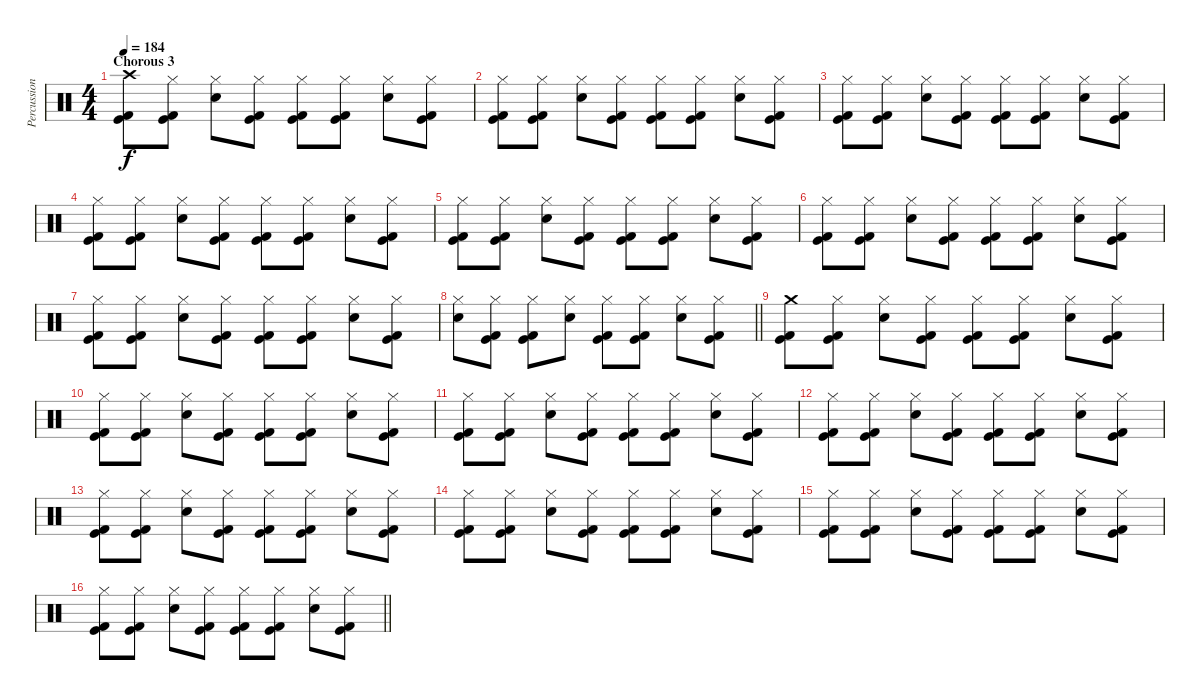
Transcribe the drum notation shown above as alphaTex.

\track ("Percussion" "Percussion") {instrument percussion}
\staff {score}
\articulation defaults
\ts (4 4)
\section ("" "Chorous 3")
\tempo 184
\clef neutral
\ks c
("Crash high (hit)" "Kick (hit)" "Kick (hit) 2").8{dy f} ("Hi-Hat (closed)" "Kick (hit)" "Kick (hit) 2").8 ("Hi-Hat (closed)" "Electric Snare (hit)").8 ("Hi-Hat (closed)" "Kick (hit)" "Kick (hit) 2").8 ("Hi-Hat (closed)" "Kick (hit)" "Kick (hit) 2").8 ("Hi-Hat (closed)" "Kick (hit)" "Kick (hit) 2").8 ("Hi-Hat (closed)" "Electric Snare (hit)").8 ("Hi-Hat (closed)" "Kick (hit)" "Kick (hit) 2").8 |
("Hi-Hat (closed)" "Kick (hit)" "Kick (hit) 2").8 ("Hi-Hat (closed)" "Kick (hit)" "Kick (hit) 2").8 ("Hi-Hat (closed)" "Electric Snare (hit)").8 ("Hi-Hat (closed)" "Kick (hit)" "Kick (hit) 2").8 ("Hi-Hat (closed)" "Kick (hit)" "Kick (hit) 2").8 ("Hi-Hat (closed)" "Kick (hit)" "Kick (hit) 2").8 ("Hi-Hat (closed)" "Electric Snare (hit)").8 ("Hi-Hat (closed)" "Kick (hit)" "Kick (hit) 2").8 |
("Hi-Hat (closed)" "Kick (hit)" "Kick (hit) 2").8 ("Hi-Hat (closed)" "Kick (hit)" "Kick (hit) 2").8 ("Hi-Hat (closed)" "Electric Snare (hit)").8 ("Hi-Hat (closed)" "Kick (hit)" "Kick (hit) 2").8 ("Hi-Hat (closed)" "Kick (hit)" "Kick (hit) 2").8 ("Hi-Hat (closed)" "Kick (hit)" "Kick (hit) 2").8 ("Hi-Hat (closed)" "Electric Snare (hit)").8 ("Hi-Hat (closed)" "Kick (hit)" "Kick (hit) 2").8 |
("Hi-Hat (closed)" "Kick (hit)" "Kick (hit) 2").8 ("Hi-Hat (closed)" "Kick (hit)" "Kick (hit) 2").8 ("Hi-Hat (closed)" "Electric Snare (hit)").8 ("Hi-Hat (closed)" "Kick (hit)" "Kick (hit) 2").8 ("Hi-Hat (closed)" "Kick (hit)" "Kick (hit) 2").8 ("Hi-Hat (closed)" "Kick (hit)" "Kick (hit) 2").8 ("Hi-Hat (closed)" "Electric Snare (hit)").8 ("Hi-Hat (closed)" "Kick (hit)" "Kick (hit) 2").8 |
("Hi-Hat (closed)" "Kick (hit)" "Kick (hit) 2").8 ("Hi-Hat (closed)" "Kick (hit)" "Kick (hit) 2").8 ("Hi-Hat (closed)" "Electric Snare (hit)").8 ("Hi-Hat (closed)" "Kick (hit)" "Kick (hit) 2").8 ("Hi-Hat (closed)" "Kick (hit)" "Kick (hit) 2").8 ("Hi-Hat (closed)" "Kick (hit)" "Kick (hit) 2").8 ("Hi-Hat (closed)" "Electric Snare (hit)").8 ("Hi-Hat (closed)" "Kick (hit)" "Kick (hit) 2").8 |
("Hi-Hat (closed)" "Kick (hit)" "Kick (hit) 2").8 ("Hi-Hat (closed)" "Kick (hit)" "Kick (hit) 2").8 ("Hi-Hat (closed)" "Electric Snare (hit)").8 ("Hi-Hat (closed)" "Kick (hit)" "Kick (hit) 2").8 ("Hi-Hat (closed)" "Kick (hit)" "Kick (hit) 2").8 ("Hi-Hat (closed)" "Kick (hit)" "Kick (hit) 2").8 ("Hi-Hat (closed)" "Electric Snare (hit)").8 ("Hi-Hat (closed)" "Kick (hit)" "Kick (hit) 2").8 |
("Hi-Hat (closed)" "Kick (hit)" "Kick (hit) 2").8 ("Hi-Hat (closed)" "Kick (hit)" "Kick (hit) 2").8 ("Hi-Hat (closed)" "Electric Snare (hit)").8 ("Hi-Hat (closed)" "Kick (hit)" "Kick (hit) 2").8 ("Hi-Hat (closed)" "Kick (hit)" "Kick (hit) 2").8 ("Hi-Hat (closed)" "Kick (hit)" "Kick (hit) 2").8 ("Hi-Hat (closed)" "Electric Snare (hit)").8 ("Hi-Hat (closed)" "Kick (hit)" "Kick (hit) 2").8 |
\barLineRight lightlight
("Hi-Hat (closed)" "Electric Snare (hit)").8 ("Hi-Hat (closed)" "Kick (hit)" "Kick (hit) 2").8 ("Hi-Hat (closed)" "Kick (hit)" "Kick (hit) 2").8 ("Hi-Hat (closed)" "Electric Snare (hit)").8 ("Hi-Hat (closed)" "Kick (hit)" "Kick (hit) 2").8 ("Hi-Hat (closed)" "Kick (hit)" "Kick (hit) 2").8 ("Hi-Hat (closed)" "Electric Snare (hit)").8 ("Hi-Hat (closed)" "Kick (hit)" "Kick (hit) 2").8 |
\section ("" "")
("Crash medium (hit)" "Kick (hit)" "Kick (hit) 2").8 ("Hi-Hat (closed)" "Kick (hit)" "Kick (hit) 2").8 ("Hi-Hat (closed)" "Electric Snare (hit)").8 ("Hi-Hat (closed)" "Kick (hit)" "Kick (hit) 2").8 ("Hi-Hat (closed)" "Kick (hit)" "Kick (hit) 2").8 ("Hi-Hat (closed)" "Kick (hit)" "Kick (hit) 2").8 ("Hi-Hat (closed)" "Electric Snare (hit)").8 ("Hi-Hat (closed)" "Kick (hit)" "Kick (hit) 2").8 |
("Hi-Hat (closed)" "Kick (hit)" "Kick (hit) 2").8 ("Hi-Hat (closed)" "Kick (hit)" "Kick (hit) 2").8 ("Hi-Hat (closed)" "Electric Snare (hit)").8 ("Hi-Hat (closed)" "Kick (hit)" "Kick (hit) 2").8 ("Hi-Hat (closed)" "Kick (hit)" "Kick (hit) 2").8 ("Hi-Hat (closed)" "Kick (hit)" "Kick (hit) 2").8 ("Hi-Hat (closed)" "Electric Snare (hit)").8 ("Hi-Hat (closed)" "Kick (hit)" "Kick (hit) 2").8 |
("Hi-Hat (closed)" "Kick (hit)" "Kick (hit) 2").8 ("Hi-Hat (closed)" "Kick (hit)" "Kick (hit) 2").8 ("Hi-Hat (closed)" "Electric Snare (hit)").8 ("Hi-Hat (closed)" "Kick (hit)" "Kick (hit) 2").8 ("Hi-Hat (closed)" "Kick (hit)" "Kick (hit) 2").8 ("Hi-Hat (closed)" "Kick (hit)" "Kick (hit) 2").8 ("Hi-Hat (closed)" "Electric Snare (hit)").8 ("Hi-Hat (closed)" "Kick (hit)" "Kick (hit) 2").8 |
("Hi-Hat (closed)" "Kick (hit)" "Kick (hit) 2").8 ("Hi-Hat (closed)" "Kick (hit)" "Kick (hit) 2").8 ("Hi-Hat (closed)" "Electric Snare (hit)").8 ("Hi-Hat (closed)" "Kick (hit)" "Kick (hit) 2").8 ("Hi-Hat (closed)" "Kick (hit)" "Kick (hit) 2").8 ("Hi-Hat (closed)" "Kick (hit)" "Kick (hit) 2").8 ("Hi-Hat (closed)" "Electric Snare (hit)").8 ("Hi-Hat (closed)" "Kick (hit)" "Kick (hit) 2").8 |
("Hi-Hat (closed)" "Kick (hit)" "Kick (hit) 2").8 ("Hi-Hat (closed)" "Kick (hit)" "Kick (hit) 2").8 ("Hi-Hat (closed)" "Electric Snare (hit)").8 ("Hi-Hat (closed)" "Kick (hit)" "Kick (hit) 2").8 ("Hi-Hat (closed)" "Kick (hit)" "Kick (hit) 2").8 ("Hi-Hat (closed)" "Kick (hit)" "Kick (hit) 2").8 ("Hi-Hat (closed)" "Electric Snare (hit)").8 ("Hi-Hat (closed)" "Kick (hit)" "Kick (hit) 2").8 |
("Hi-Hat (closed)" "Kick (hit)" "Kick (hit) 2").8 ("Hi-Hat (closed)" "Kick (hit)" "Kick (hit) 2").8 ("Hi-Hat (closed)" "Electric Snare (hit)").8 ("Hi-Hat (closed)" "Kick (hit)" "Kick (hit) 2").8 ("Hi-Hat (closed)" "Kick (hit)" "Kick (hit) 2").8 ("Hi-Hat (closed)" "Kick (hit)" "Kick (hit) 2").8 ("Hi-Hat (closed)" "Electric Snare (hit)").8 ("Hi-Hat (closed)" "Kick (hit)" "Kick (hit) 2").8 |
("Hi-Hat (closed)" "Kick (hit)" "Kick (hit) 2").8 ("Hi-Hat (closed)" "Kick (hit)" "Kick (hit) 2").8 ("Hi-Hat (closed)" "Electric Snare (hit)").8 ("Hi-Hat (closed)" "Kick (hit)" "Kick (hit) 2").8 ("Hi-Hat (closed)" "Kick (hit)" "Kick (hit) 2").8 ("Hi-Hat (closed)" "Kick (hit)" "Kick (hit) 2").8 ("Hi-Hat (closed)" "Electric Snare (hit)").8 ("Hi-Hat (closed)" "Kick (hit)" "Kick (hit) 2").8 |
\barLineRight lightlight
("Hi-Hat (closed)" "Kick (hit)" "Kick (hit) 2").8 ("Hi-Hat (closed)" "Kick (hit)" "Kick (hit) 2").8 ("Hi-Hat (closed)" "Electric Snare (hit)").8 ("Hi-Hat (closed)" "Kick (hit)" "Kick (hit) 2").8 ("Hi-Hat (closed)" "Kick (hit)" "Kick (hit) 2").8 ("Hi-Hat (closed)" "Kick (hit)" "Kick (hit) 2").8 ("Hi-Hat (closed)" "Electric Snare (hit)").8 ("Hi-Hat (closed)" "Kick (hit)" "Kick (hit) 2").8
